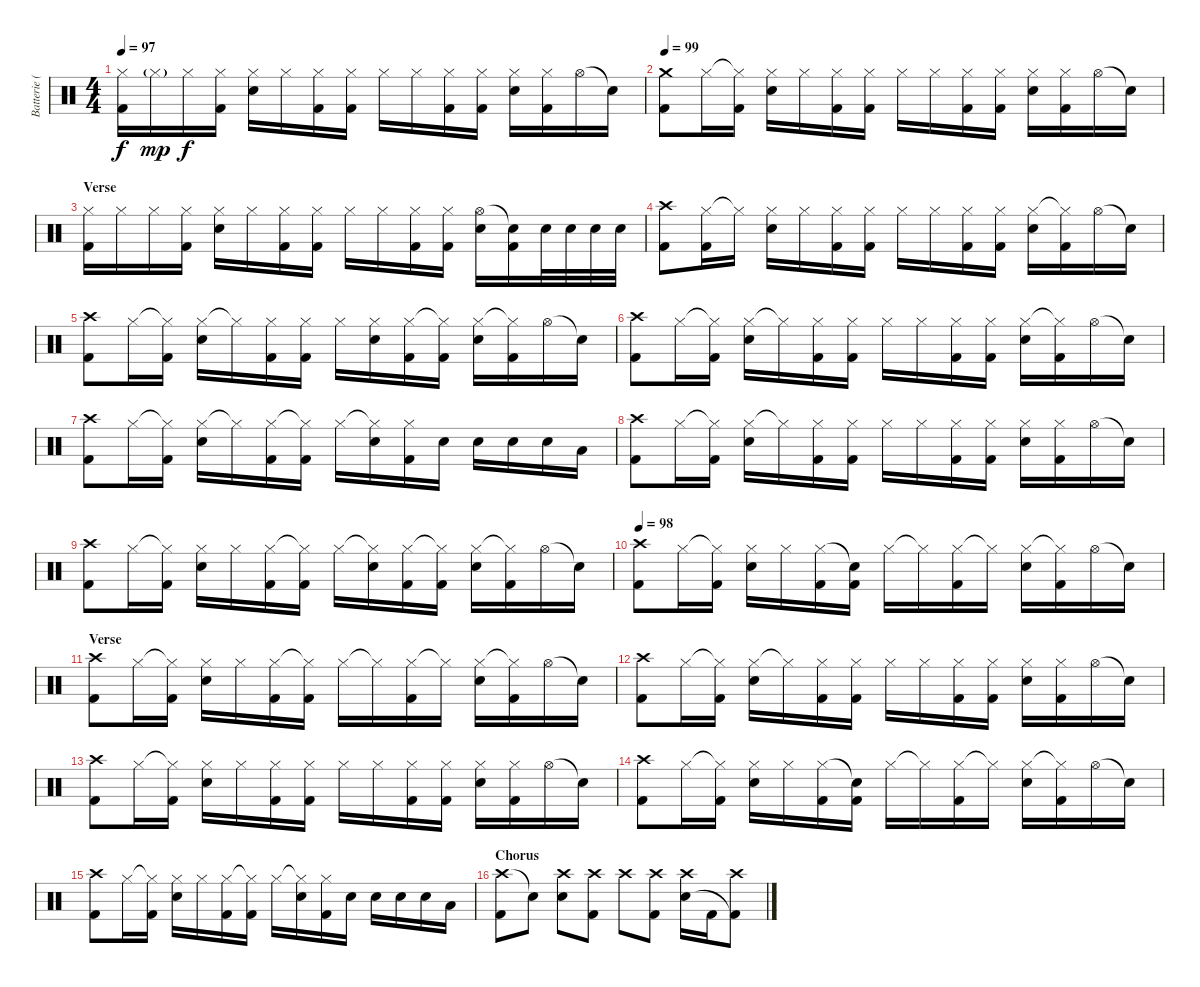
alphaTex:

\track ("Batterie (Alfredo Hernandez)" "Batterie (") {instrument percussion}
\staff {score}
\articulation defaults
\ts (4 4)
\tempo 97
\clef neutral
\ks c
("Hi-Hat (closed)" "Kick (hit) 2").16{dy f} "Hi-Hat (closed)"{g}.16{dy mp} "Hi-Hat (closed)".16{dy f} ("Hi-Hat (closed)" "Kick (hit) 2").16 ("Hi-Hat (closed)" "Electric Snare (hit)").16 "Hi-Hat (closed)".16 ("Hi-Hat (closed)" "Kick (hit) 2").16 ("Hi-Hat (closed)" "Kick (hit) 2").16 "Hi-Hat (closed)".16 "Hi-Hat (closed)".16 ("Hi-Hat (closed)" "Kick (hit) 2").16 ("Hi-Hat (closed)" "Kick (hit) 2").16 ("Hi-Hat (closed)" "Electric Snare (hit)").16 ("Hi-Hat (closed)" "Kick (hit) 2").16 "Hi-Hat (open)".16 "Snare (hit)"{t}.16 |
\tempo 99
("Crash medium (hit)" "Kick (hit) 2").8 "Hi-Hat (closed)".16 ("Hi-Hat (closed)"{t} "Kick (hit) 2").16 ("Hi-Hat (closed)" "Electric Snare (hit)").16 "Hi-Hat (closed)".16 ("Hi-Hat (closed)" "Kick (hit) 2").16 ("Hi-Hat (closed)" "Kick (hit) 2").16 "Hi-Hat (closed)".16 "Hi-Hat (closed)".16 ("Hi-Hat (closed)" "Kick (hit) 2").16 ("Hi-Hat (closed)" "Kick (hit) 2").16 ("Hi-Hat (closed)" "Electric Snare (hit)").16 ("Hi-Hat (closed)" "Kick (hit) 2").16 "Hi-Hat (open)".16 "Snare (hit)"{t}.16 |
\section ("" "Verse")
("Hi-Hat (closed)" "Kick (hit) 2").16 "Hi-Hat (closed)".16 "Hi-Hat (closed)".16 ("Hi-Hat (closed)" "Kick (hit) 2").16 ("Hi-Hat (closed)" "Electric Snare (hit)").16 "Hi-Hat (closed)".16 ("Hi-Hat (closed)" "Kick (hit) 2").16 ("Hi-Hat (closed)" "Kick (hit) 2").16 "Hi-Hat (closed)".16 "Hi-Hat (closed)".16 ("Hi-Hat (closed)" "Kick (hit) 2").16 ("Hi-Hat (closed)" "Kick (hit) 2").16 ("Hi-Hat (open)" "Electric Snare (hit)").16 ("Snare (hit)"{t} "Kick (hit) 2").16 "Electric Snare (hit)".32 "Electric Snare (hit)".32 "Electric Snare (hit)".32 "Electric Snare (hit)".32 |
("Crash high (hit)" "Kick (hit) 2").8 ("Hi-Hat (closed)" "Kick (hit) 2").16 "Hi-Hat (closed)"{t}.16 ("Hi-Hat (closed)" "Electric Snare (hit)").16 "Hi-Hat (closed)".16 ("Hi-Hat (closed)" "Kick (hit) 2").16 ("Hi-Hat (closed)" "Kick (hit) 2").16 "Hi-Hat (closed)".16 "Hi-Hat (closed)".16 ("Hi-Hat (closed)" "Kick (hit) 2").16 ("Hi-Hat (closed)" "Kick (hit) 2").16 ("Hi-Hat (closed)" "Electric Snare (hit)").16 ("Hi-Hat (closed)"{t} "Kick (hit) 2").16 "Hi-Hat (open)".16 "Snare (hit)"{t}.16 |
("Crash high (hit)" "Kick (hit) 2").8 "Hi-Hat (closed)".16 ("Hi-Hat (closed)"{t} "Kick (hit) 2").16 ("Hi-Hat (closed)" "Electric Snare (hit)").16 "Hi-Hat (closed)"{t}.16 ("Hi-Hat (closed)" "Kick (hit) 2").16 ("Hi-Hat (closed)" "Kick (hit) 2").16 "Hi-Hat (closed)".16 ("Hi-Hat (closed)" "Electric Snare (hit)").16 ("Hi-Hat (closed)" "Kick (hit) 2").16 ("Hi-Hat (closed)"{t} "Kick (hit) 2").16 ("Hi-Hat (closed)" "Electric Snare (hit)").16 ("Hi-Hat (closed)"{t} "Kick (hit) 2").16 "Hi-Hat (open)".16 "Snare (hit)"{t}.16 |
("Crash high (hit)" "Kick (hit) 2").8 "Hi-Hat (closed)".16 ("Hi-Hat (closed)"{t} "Kick (hit) 2").16 ("Hi-Hat (closed)" "Electric Snare (hit)").16 "Hi-Hat (closed)"{t}.16 ("Hi-Hat (closed)" "Kick (hit) 2").16 ("Hi-Hat (closed)" "Kick (hit) 2").16 "Hi-Hat (closed)".16 "Hi-Hat (closed)".16 ("Hi-Hat (closed)" "Kick (hit) 2").16 ("Hi-Hat (closed)" "Kick (hit) 2").16 ("Hi-Hat (closed)" "Electric Snare (hit)").16 ("Hi-Hat (closed)"{t} "Kick (hit) 2").16 "Hi-Hat (open)".16 "Snare (hit)"{t}.16 |
("Crash high (hit)" "Kick (hit) 2").8 "Hi-Hat (closed)".16 ("Hi-Hat (closed)"{t} "Kick (hit) 2").16 ("Hi-Hat (closed)" "Electric Snare (hit)").16 "Hi-Hat (closed)"{t}.16 ("Hi-Hat (closed)" "Kick (hit) 2").16 ("Hi-Hat (closed)"{t} "Kick (hit) 2").16 "Hi-Hat (closed)".16 ("Hi-Hat (closed)"{t} "Electric Snare (hit)").16 ("Hi-Hat (closed)" "Kick (hit) 2").16 "Electric Snare (hit)".16 "Electric Snare (hit)".16 "Electric Snare (hit)".16 "Electric Snare (hit)".16 "Low Floor Tom (hit)".16 |
("Crash high (hit)" "Kick (hit) 2").8 "Hi-Hat (closed)".16 ("Hi-Hat (closed)"{t} "Kick (hit) 2").16 ("Hi-Hat (closed)" "Electric Snare (hit)").16 "Hi-Hat (closed)"{t}.16 ("Hi-Hat (closed)" "Kick (hit) 2").16 ("Hi-Hat (closed)" "Kick (hit) 2").16 "Hi-Hat (closed)".16 "Hi-Hat (closed)".16 ("Hi-Hat (closed)" "Kick (hit) 2").16 ("Hi-Hat (closed)" "Kick (hit) 2").16 ("Hi-Hat (closed)" "Electric Snare (hit)").16 ("Hi-Hat (closed)" "Kick (hit) 2").16 "Hi-Hat (open)".16 "Snare (hit)"{t}.16 |
("Crash high (hit)" "Kick (hit) 2").8 "Hi-Hat (closed)".16 ("Hi-Hat (closed)"{t} "Kick (hit) 2").16 ("Hi-Hat (closed)" "Electric Snare (hit)").16 "Hi-Hat (closed)".16 ("Hi-Hat (closed)" "Kick (hit) 2").16 ("Hi-Hat (closed)"{t} "Kick (hit) 2").16 "Hi-Hat (closed)".16 ("Hi-Hat (closed)"{t} "Electric Snare (hit)").16 ("Hi-Hat (closed)" "Kick (hit) 2").16 ("Hi-Hat (closed)"{t} "Kick (hit) 2").16 ("Hi-Hat (closed)" "Electric Snare (hit)").16 ("Hi-Hat (closed)"{t} "Kick (hit) 2").16 "Hi-Hat (open)".16 "Snare (hit)"{t}.16 |
\tempo 98
("Crash high (hit)" "Kick (hit) 2").8 "Hi-Hat (closed)".16 ("Hi-Hat (closed)"{t} "Kick (hit) 2").16 ("Hi-Hat (closed)" "Electric Snare (hit)").16 "Hi-Hat (closed)".16 ("Hi-Hat (closed)" "Kick (hit) 2").16 ("Snare (hit)"{t} "Kick (hit) 2").16 "Hi-Hat (closed)".16 "Hi-Hat (closed)"{t}.16 ("Hi-Hat (closed)" "Kick (hit) 2").16 "Hi-Hat (closed)"{t}.16 ("Hi-Hat (closed)" "Electric Snare (hit)").16 ("Hi-Hat (closed)"{t} "Kick (hit) 2").16 "Hi-Hat (open)".16 "Snare (hit)"{t}.16 |
\section ("" "Verse")
("Crash high (hit)" "Kick (hit) 2").8 "Hi-Hat (closed)".16 ("Hi-Hat (closed)"{t} "Kick (hit) 2").16 ("Hi-Hat (closed)" "Electric Snare (hit)").16 "Hi-Hat (closed)".16 ("Hi-Hat (closed)" "Kick (hit) 2").16 ("Hi-Hat (closed)"{t} "Kick (hit) 2").16 "Hi-Hat (closed)".16 "Hi-Hat (closed)"{t}.16 ("Hi-Hat (closed)" "Kick (hit) 2").16 "Hi-Hat (closed)"{t}.16 ("Hi-Hat (closed)" "Electric Snare (hit)").16 ("Hi-Hat (closed)"{t} "Kick (hit) 2").16 "Hi-Hat (open)".16 "Snare (hit)"{t}.16 |
("Crash high (hit)" "Kick (hit) 2").8 "Hi-Hat (closed)".16 ("Hi-Hat (closed)"{t} "Kick (hit) 2").16 ("Hi-Hat (closed)" "Electric Snare (hit)").16 "Hi-Hat (closed)"{t}.16 ("Hi-Hat (closed)" "Kick (hit) 2").16 ("Hi-Hat (closed)" "Kick (hit) 2").16 "Hi-Hat (closed)".16 "Hi-Hat (closed)".16 ("Hi-Hat (closed)" "Kick (hit) 2").16 ("Hi-Hat (closed)" "Kick (hit) 2").16 ("Hi-Hat (closed)" "Electric Snare (hit)").16 ("Hi-Hat (closed)" "Kick (hit) 2").16 "Hi-Hat (open)".16 "Snare (hit)"{t}.16 |
("Crash high (hit)" "Kick (hit) 2").8 "Hi-Hat (closed)".16 ("Hi-Hat (closed)"{t} "Kick (hit) 2").16 ("Hi-Hat (closed)" "Electric Snare (hit)").16 "Hi-Hat (closed)".16 ("Hi-Hat (closed)" "Kick (hit) 2").16 ("Hi-Hat (closed)" "Kick (hit) 2").16 "Hi-Hat (closed)".16 "Hi-Hat (closed)".16 ("Hi-Hat (closed)" "Kick (hit) 2").16 ("Hi-Hat (closed)" "Kick (hit) 2").16 ("Hi-Hat (closed)" "Electric Snare (hit)").16 ("Hi-Hat (closed)" "Kick (hit) 2").16 "Hi-Hat (open)".16 "Snare (hit)"{t}.16 |
("Crash high (hit)" "Kick (hit) 2").8 "Hi-Hat (closed)".16 ("Hi-Hat (closed)"{t} "Kick (hit) 2").16 ("Hi-Hat (closed)" "Electric Snare (hit)").16 "Hi-Hat (closed)".16 ("Hi-Hat (closed)" "Kick (hit) 2").16 ("Snare (hit)"{t} "Kick (hit) 2").16 "Hi-Hat (closed)".16 "Hi-Hat (closed)"{t}.16 ("Hi-Hat (closed)" "Kick (hit) 2").16 "Hi-Hat (closed)"{t}.16 ("Hi-Hat (closed)" "Electric Snare (hit)").16 ("Hi-Hat (closed)"{t} "Kick (hit) 2").16 "Hi-Hat (open)".16 "Snare (hit)"{t}.16 |
("Crash high (hit)" "Kick (hit) 2").8 "Hi-Hat (closed)".16 ("Hi-Hat (closed)"{t} "Kick (hit) 2").16 ("Hi-Hat (closed)" "Electric Snare (hit)").16 "Hi-Hat (closed)".16 ("Hi-Hat (closed)" "Kick (hit) 2").16 ("Hi-Hat (closed)"{t} "Kick (hit) 2").16 "Hi-Hat (closed)".16 ("Hi-Hat (closed)"{t} "Electric Snare (hit)").16 ("Hi-Hat (closed)" "Kick (hit) 2").16 "Electric Snare (hit)".16 "Electric Snare (hit)".16 "Electric Snare (hit)".16 "Electric Snare (hit)".16 "Low Floor Tom (hit)".16 |
\section ("" "Chorus")
("Crash high (hit)" "Kick (hit) 2").8 "Snare (hit)"{t}.8 ("Crash high (hit)" "Electric Snare (hit)").8 ("Crash high (hit)" "Kick (hit) 2").8 "Crash high (hit)".8 ("Crash high (hit)" "Kick (hit) 2").8 ("Crash high (hit)" "Electric Snare (hit)").16 "Kick (hit) 2".16 ("Crash high (hit)" "Kick (hit) 2"{t}).8
